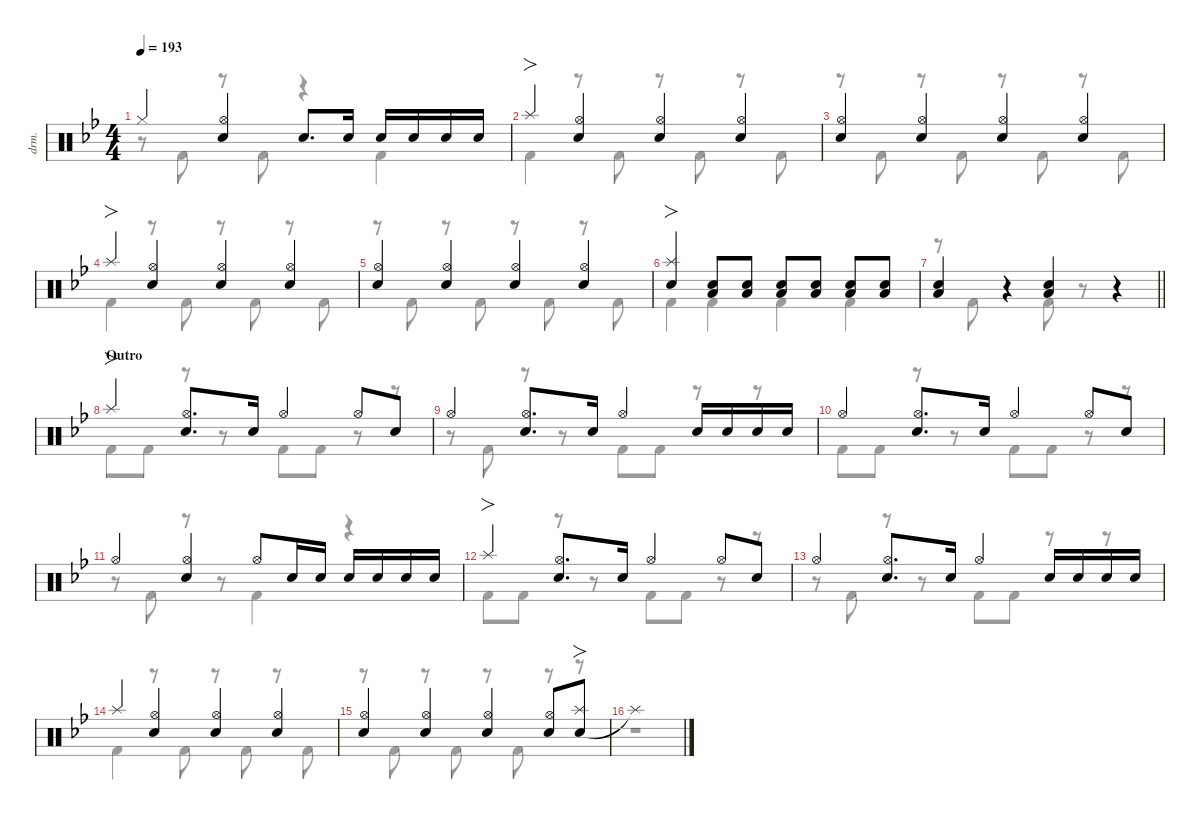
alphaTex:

\defaultSystemsLayout 4
\hideDynamics
\bracketExtendMode nobrackets
\track ("伊地知虹夏" "drm.") {instrument percussion}
\staff {score}
\articulation defaults
\voice
\ts (4 4)
\tempo 193
\clef neutral
\ks bb "Hi-Hat (closed)"{t acc forcenatural}.4{dy mf beam Up}
("Hi-Hat (open)"{acc forcenatural} "Snare (hit) 2"{acc forcenatural}).4{beam Up} "Snare (hit) 2"{acc forcenatural}.8{d beam Up} "Snare (hit) 2"{acc forcenatural}.16{beam Up} "Snare (hit) 2"{acc forcenatural}.16{beam Up} "Snare (hit) 2"{acc forcenatural}.16{beam Up} "Snare (hit) 2"{acc forcenatural}.16{beam Up} "Snare (hit) 2"{acc forcenatural}.16{beam Up} |
"Splash (hit)"{acc forcenatural}.4{fo beam Up} ("Hi-Hat (open)"{acc forcenatural} "Snare (hit) 2"{acc forcenatural}).4{beam Up} ("Hi-Hat (open)"{acc forcenatural} "Snare (hit) 2"{acc forcenatural}).4{beam Up} ("Hi-Hat (open)"{acc forcenatural} "Snare (hit) 2"{acc forcenatural}).4{beam Up} |
("Hi-Hat (open)"{acc forcenatural} "Snare (hit) 2"{acc forcenatural}).4{beam Up} ("Hi-Hat (open)"{acc forcenatural} "Snare (hit) 2"{acc forcenatural}).4{beam Up} ("Hi-Hat (open)"{acc forcenatural} "Snare (hit) 2"{acc forcenatural}).4{beam Up} ("Hi-Hat (open)"{acc forcenatural} "Snare (hit) 2"{acc forcenatural}).4{beam Up} |
"Splash (hit)"{acc forcenatural}.4{fo beam Up} ("Hi-Hat (open)"{acc forcenatural} "Snare (hit) 2"{acc forcenatural}).4{beam Up} ("Hi-Hat (open)"{acc forcenatural} "Snare (hit) 2"{acc forcenatural}).4{beam Up} ("Hi-Hat (open)"{acc forcenatural} "Snare (hit) 2"{acc forcenatural}).4{beam Up} |
("Hi-Hat (open)"{acc forcenatural} "Snare (hit) 2"{acc forcenatural}).4{beam Up} ("Hi-Hat (open)"{acc forcenatural} "Snare (hit) 2"{acc forcenatural}).4{beam Up} ("Hi-Hat (open)"{acc forcenatural} "Snare (hit) 2"{acc forcenatural}).4{beam Up} ("Hi-Hat (open)"{acc forcenatural} "Snare (hit) 2"{acc forcenatural}).4{beam Up} |
("Snare (hit) 2"{acc forcenatural} "Splash (hit)"{acc forcenatural}).4{fo beam Up} ("Snare (hit) 2"{acc forcenatural} "Low Tom (hit)"{acc forcenatural}).8{beam Up} ("Snare (hit) 2"{acc forcenatural} "Low Tom (hit)"{acc forcenatural}).8{beam Up} ("Snare (hit) 2"{acc forcenatural} "Low Tom (hit)"{acc forcenatural}).8{beam Up} ("Snare (hit) 2"{acc forcenatural} "Low Tom (hit)"{acc forcenatural}).8{beam Up} ("Snare (hit) 2"{acc forcenatural} "Low Tom (hit)"{acc forcenatural}).8{beam Up} ("Snare (hit) 2"{acc forcenatural} "Low Tom (hit)"{acc forcenatural}).8{beam Up} |
\barLineRight lightlight
("Snare (hit) 2"{acc forcenatural} "Low Tom (hit)"{acc forcenatural}).4{beam Up} r.4{beam Up} ("Snare (hit) 2"{acc forcenatural} "Low Tom (hit)"{acc forcenatural}).4{beam Up} r.4{beam Up} |
\section ("" "Outro")
"Splash (hit)"{acc forcenatural}.4{fo beam Up} ("Snare (hit) 2"{acc forcenatural} "Hi-Hat (open)"{acc forcenatural}).8{d beam Up} "Snare (hit) 2"{acc forcenatural}.16{beam Up} "Hi-Hat (open)"{acc forcenatural}.4{beam Up} "Hi-Hat (open)"{acc forcenatural}.8{beam Up} "Snare (hit) 2"{acc forcenatural}.8{beam Up} |
"Hi-Hat (open)"{acc forcenatural}.4{beam Up} ("Hi-Hat (open)"{acc forcenatural} "Snare (hit) 2"{acc forcenatural}).8{d beam Up} "Snare (hit) 2"{acc forcenatural}.16{beam Up} "Hi-Hat (open)"{acc forcenatural}.4{beam Up} "Snare (hit) 2"{acc forcenatural}.16{beam Up} "Snare (hit) 2"{acc forcenatural}.16{beam Up} "Snare (hit) 2"{acc forcenatural}.16{beam Up} "Snare (hit) 2"{acc forcenatural}.16{beam Up} |
"Hi-Hat (open)"{acc forcenatural}.4{beam Up} ("Hi-Hat (open)"{acc forcenatural} "Snare (hit) 2"{acc forcenatural}).8{d beam Up} "Snare (hit) 2"{acc forcenatural}.16{beam Up} "Hi-Hat (open)"{acc forcenatural}.4{beam Up} "Hi-Hat (open)"{acc forcenatural}.8{beam Up} "Snare (hit) 2"{acc forcenatural}.8{beam Up} |
"Hi-Hat (open)"{acc forcenatural}.4{beam Up} ("Hi-Hat (open)"{acc forcenatural} "Snare (hit) 2"{acc forcenatural}).4{beam Up} "Hi-Hat (open)"{acc forcenatural}.8{beam Up} "Snare (hit) 2"{acc forcenatural}.16{beam Up} "Snare (hit) 2"{acc forcenatural}.16{beam Up} "Snare (hit) 2"{acc forcenatural}.16{beam Up} "Snare (hit) 2"{acc forcenatural}.16{beam Up} "Snare (hit) 2"{acc forcenatural}.16{beam Up} "Snare (hit) 2"{acc forcenatural}.16{beam Up} |
"Splash (hit)"{acc forcenatural}.4{fo beam Up} ("Snare (hit) 2"{acc forcenatural} "Hi-Hat (open)"{acc forcenatural}).8{d beam Up} "Snare (hit) 2"{acc forcenatural}.16{beam Up} "Hi-Hat (open)"{acc forcenatural}.4{beam Up} "Hi-Hat (open)"{acc forcenatural}.8{beam Up} "Snare (hit) 2"{acc forcenatural}.8{beam Up} |
"Hi-Hat (open)"{acc forcenatural}.4{beam Up} ("Hi-Hat (open)"{acc forcenatural} "Snare (hit) 2"{acc forcenatural}).8{d beam Up} "Snare (hit) 2"{acc forcenatural}.16{beam Up} "Hi-Hat (open)"{acc forcenatural}.4{beam Up} "Snare (hit) 2"{acc forcenatural}.16{beam Up} "Snare (hit) 2"{acc forcenatural}.16{beam Up} "Snare (hit) 2"{acc forcenatural}.16{beam Up} "Snare (hit) 2"{acc forcenatural}.16{beam Up} |
"Splash (hit)"{acc forcenatural}.4{beam Up} ("Hi-Hat (open)"{acc forcenatural} "Snare (hit) 2"{acc forcenatural}).4{beam Up} ("Hi-Hat (open)"{acc forcenatural} "Snare (hit) 2"{acc forcenatural}).4{beam Up} ("Hi-Hat (open)"{acc forcenatural} "Snare (hit) 2"{acc forcenatural}).4{beam Up} |
("Hi-Hat (open)"{acc forcenatural} "Snare (hit) 2"{acc forcenatural}).4{beam Up} ("Hi-Hat (open)"{acc forcenatural} "Snare (hit) 2"{acc forcenatural}).4{beam Up} ("Hi-Hat (open)"{acc forcenatural} "Snare (hit) 2"{acc forcenatural}).4{beam Up} ("Hi-Hat (open)"{acc forcenatural} "Snare (hit) 2"{acc forcenatural}).8{beam Up} ("Snare (hit) 2"{acc forcenatural} "Splash (hit)"{acc forcenatural}).8{fo beam Up} |
"Splash (hit)"{t acc forcenatural}.1{beam Up}
\voice
\clef neutral
\ottava regular
\simile none
\ks bb
r.8{dy mf beam Down} "Kick (hit) 2"{acc forcenatural}.8{beam Down} r.8{beam Down} "Kick (hit) 2"{acc forcenatural}.8{beam Down} r.4{beam Down} "Kick (hit) 2"{acc forcenatural}.4{beam Down} |
"Kick (hit) 2"{acc forcenatural}.4{beam Down} r.8{beam Down} "Kick (hit) 2"{acc forcenatural}.8{beam Down} r.8{beam Down} "Kick (hit) 2"{acc forcenatural}.8{beam Down} r.8{beam Down} "Kick (hit) 2"{acc forcenatural}.8{beam Down} |
r.8{beam Down} "Kick (hit) 2"{acc forcenatural}.8{beam Down} r.8{beam Down} "Kick (hit) 2"{acc forcenatural}.8{beam Down} r.8{beam Down} "Kick (hit) 2"{acc forcenatural}.8{beam Down} r.8{beam Down} "Kick (hit) 2"{acc forcenatural}.8{beam Down} |
"Kick (hit) 2"{acc forcenatural}.4{beam Down} r.8{beam Down} "Kick (hit) 2"{acc forcenatural}.8{beam Down} r.8{beam Down} "Kick (hit) 2"{acc forcenatural}.8{beam Down} r.8{beam Down} "Kick (hit) 2"{acc forcenatural}.8{beam Down} |
r.8{beam Down} "Kick (hit) 2"{acc forcenatural}.8{beam Down} r.8{beam Down} "Kick (hit) 2"{acc forcenatural}.8{beam Down} r.8{beam Down} "Kick (hit) 2"{acc forcenatural}.8{beam Down} r.8{beam Down} "Kick (hit) 2"{acc forcenatural}.8{beam Down} |
"Kick (hit) 2"{acc forcenatural}.4{beam Down} "Kick (hit) 2"{acc forcenatural}.4{beam Down} "Kick (hit) 2"{acc forcenatural}.4{beam Down} "Kick (hit) 2"{acc forcenatural}.4{beam Down} |
\barLineRight lightlight
r.8{beam Down} "Kick (hit) 2"{acc forcenatural}.8{beam Down} r.4{beam Down} "Kick (hit) 2"{acc forcenatural}.8{beam Down} r.8{beam Down} r.4{beam Down} |
"Kick (hit) 2"{acc forcenatural}.8{beam Down} "Kick (hit) 2"{acc forcenatural}.8{beam Down} r.8{beam Down} r.8{beam Down} "Kick (hit) 2"{acc forcenatural}.8{beam Down} "Kick (hit) 2"{acc forcenatural}.8{beam Down} r.8{beam Down} r.8{beam Down} |
r.8{beam Down} "Kick (hit) 2"{acc forcenatural}.8{beam Down} r.8{beam Down} r.8{beam Down} "Kick (hit) 2"{acc forcenatural}.8{beam Down} "Kick (hit) 2"{acc forcenatural}.8{beam Down} r.8{beam Down} r.8{beam Down} |
"Kick (hit) 2"{acc forcenatural}.8{beam Down} "Kick (hit) 2"{acc forcenatural}.8{beam Down} r.8{beam Down} r.8{beam Down} "Kick (hit) 2"{acc forcenatural}.8{beam Down} "Kick (hit) 2"{acc forcenatural}.8{beam Down} r.8{beam Down} r.8{beam Down} |
r.8{beam Down} "Kick (hit) 2"{acc forcenatural}.8{beam Down} r.8{beam Down} r.8{beam Down} "Kick (hit) 2"{acc forcenatural}.4{beam Down} r.4{beam Down} |
"Kick (hit) 2"{acc forcenatural}.8{beam Down} "Kick (hit) 2"{acc forcenatural}.8{beam Down} r.8{beam Down} r.8{beam Down} "Kick (hit) 2"{acc forcenatural}.8{beam Down} "Kick (hit) 2"{acc forcenatural}.8{beam Down} r.8{beam Down} r.8{beam Down} |
r.8{beam Down} "Kick (hit) 2"{acc forcenatural}.8{beam Down} r.8{beam Down} r.8{beam Down} "Kick (hit) 2"{acc forcenatural}.8{beam Down} "Kick (hit) 2"{acc forcenatural}.8{beam Down} r.8{beam Down} r.8{beam Down} |
"Kick (hit) 2"{acc forcenatural}.4{beam Down} r.8{beam Down} "Kick (hit) 2"{acc forcenatural}.8{beam Down} r.8{beam Down} "Kick (hit) 2"{acc forcenatural}.8{beam Down} r.8{beam Down} "Kick (hit) 2"{acc forcenatural}.8{beam Down} |
r.8{beam Down} "Kick (hit) 2"{acc forcenatural}.8{beam Down} r.8{beam Down} "Kick (hit) 2"{acc forcenatural}.8{beam Down} r.8{beam Down} "Kick (hit) 2"{acc forcenatural}.8{beam Down} r.8{beam Down} r.8{beam Down} |
r.1{beam Down}
